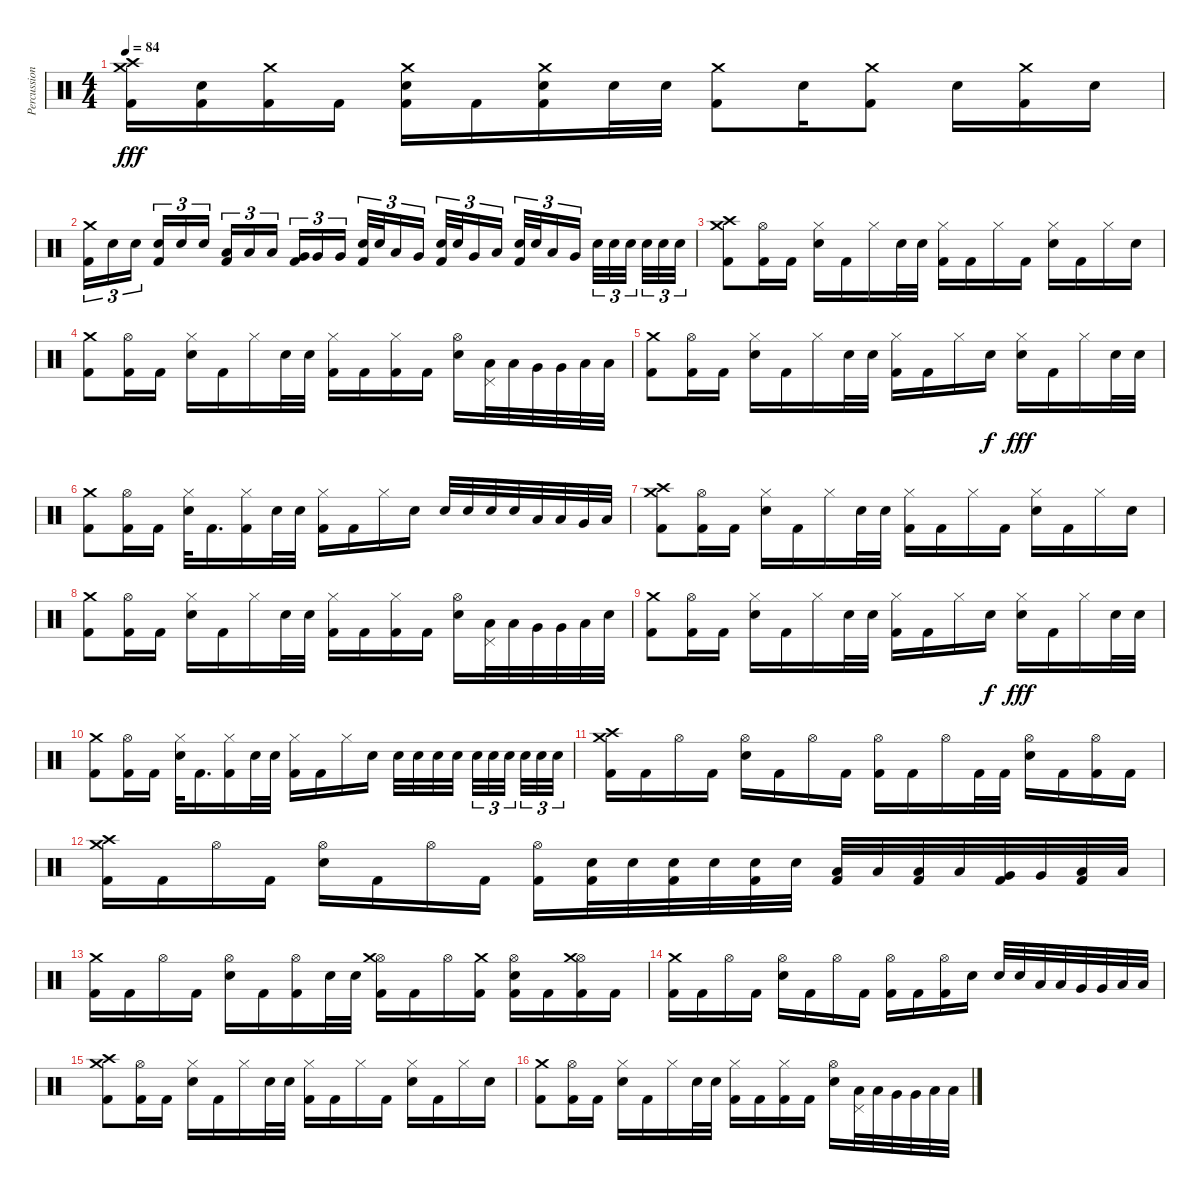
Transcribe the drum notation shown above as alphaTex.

\track ("Percussion" "Percussion") {instrument percussion}
\staff {score}
\articulation defaults
\ts (4 4)
\tempo 84
\clef neutral
\ks c
("Crash high (hit)" "Crash medium (hit)" "Kick (hit) 2").16{dy fff} ("Electric Snare (hit)" "Kick (hit) 2").16 ("Crash medium (hit)" "Kick (hit) 2").16 "Kick (hit) 2".16 ("Crash medium (hit)" "Electric Snare (hit)" "Kick (hit) 2").16 "Kick (hit) 2".16 ("Crash medium (hit)" "Electric Snare (hit)" "Kick (hit) 2").16 "Electric Snare (hit)".32 "Electric Snare (hit)".32 ("Crash medium (hit)" "Kick (hit) 2").8 "Electric Snare (hit)".16 ("Crash medium (hit)" "Kick (hit) 2").8 "Electric Snare (hit)".16 ("Crash medium (hit)" "Kick (hit) 2").16 "Electric Snare (hit)".16 |
("Crash medium (hit)" "Kick (hit) 2").16{tu (3 2)} "Electric Snare (hit)".16{tu (3 2)} "Electric Snare (hit)".16{tu (3 2) beam splitsecondary} ("Electric Snare (hit)" "Kick (hit) 2").16{tu (3 2)} "Electric Snare (hit)".16{tu (3 2)} "Electric Snare (hit)".16{tu (3 2)} ("Low Tom (hit)" "Kick (hit) 2").16{tu (3 2)} "Low Tom (hit)".16{tu (3 2)} "Low Tom (hit)".16{tu (3 2) beam splitsecondary} ("Very Low Tom (hit)" "Kick (hit) 2").16{tu (3 2)} "Very Low Tom (hit)".16{tu (3 2)} "Very Low Tom (hit)".16{tu (3 2)} ("Electric Snare (hit)" "Kick (hit) 2").32{tu (3 2)} "Electric Snare (hit)".32{tu (3 2)} "Low Tom (hit)".16{tu (3 2)} "Very Low Tom (hit)".16{tu (3 2) beam splitsecondary} ("Electric Snare (hit)" "Kick (hit) 2").32{tu (3 2)} "Electric Snare (hit)".32{tu (3 2)} "Very Low Tom (hit)".16{tu (3 2)} "Low Floor Tom (hit)".16{tu (3 2)} ("Electric Snare (hit)" "Kick (hit) 2").32{tu (3 2)} "Electric Snare (hit)".32{tu (3 2)} "Low Tom (hit)".16{tu (3 2)} "Very Low Tom (hit)".16{tu (3 2) beam splitsecondary} "Electric Snare (hit)".32{tu (3 2)} "Electric Snare (hit)".32{tu (3 2)} "Electric Snare (hit)".32{tu (3 2) beam splitsecondary} "Electric Snare (hit)".32{tu (3 2)} "Electric Snare (hit)".32{tu (3 2)} "Electric Snare (hit)".32{tu (3 2)} |
("Crash high (hit)" "Crash medium (hit)" "Kick (hit) 2").8 ("Hi-Hat (open)" "Kick (hit) 2").16 "Kick (hit) 2".16 ("Hi-Hat (closed)" "Electric Snare (hit)").16 "Kick (hit) 2".16 "Hi-Hat (closed)".16 "Electric Snare (hit)".32 "Electric Snare (hit)".32 ("Hi-Hat (closed)" "Kick (hit) 2").16 "Kick (hit) 2".16 "Hi-Hat (closed)".16 "Kick (hit) 2".16 ("Hi-Hat (closed)" "Electric Snare (hit)").16 "Kick (hit) 2".16 "Hi-Hat (closed)".16 "Electric Snare (hit)".16 |
("Crash medium (hit)" "Kick (hit) 2").8 ("Hi-Hat (open)" "Kick (hit) 2").16 "Kick (hit) 2".16 ("Hi-Hat (closed)" "Electric Snare (hit)").16 "Kick (hit) 2".16 "Hi-Hat (closed)".16 "Electric Snare (hit)".32 "Electric Snare (hit)".32 ("Hi-Hat (closed)" "Kick (hit) 2").16 "Kick (hit) 2".16 ("Hi-Hat (closed)" "Kick (hit) 2").16 "Kick (hit) 2".16 ("Hi-Hat (open)" "Electric Snare (hit)").16 ("Pedal Hi-Hat (hit)" "Low Tom (hit)").32 "Low Tom (hit)".32 "Very Low Tom (hit)".32 "Very Low Tom (hit)".32 "Low Floor Tom (hit)".32 "Low Floor Tom (hit)".32 |
("Crash medium (hit)" "Kick (hit) 2").8 ("Hi-Hat (open)" "Kick (hit) 2").16 "Kick (hit) 2".16 ("Hi-Hat (closed)" "Electric Snare (hit)").16 "Kick (hit) 2".16 "Hi-Hat (closed)".16 "Electric Snare (hit)".32 "Electric Snare (hit)".32 ("Hi-Hat (closed)" "Kick (hit) 2").16 "Kick (hit) 2".16 "Hi-Hat (closed)".16 "Electric Snare (hit)".16{dy f} ("Hi-Hat (closed)" "Electric Snare (hit)").16{dy fff} "Kick (hit) 2".16 "Hi-Hat (closed)".16 "Electric Snare (hit)".32 "Electric Snare (hit)".32 |
("Crash medium (hit)" "Kick (hit) 2").8 ("Hi-Hat (open)" "Kick (hit) 2").16 "Kick (hit) 2".16 ("Hi-Hat (closed)" "Electric Snare (hit)").32 "Kick (hit) 2".16{d} ("Hi-Hat (closed)" "Kick (hit) 2").16 "Electric Snare (hit)".32 "Electric Snare (hit)".32 ("Hi-Hat (closed)" "Kick (hit) 2").16 "Kick (hit) 2".16 "Hi-Hat (closed)".16 "Electric Snare (hit)".16 "Electric Snare (hit)".32 "Electric Snare (hit)".32 "Electric Snare (hit)".32 "Electric Snare (hit)".32 "Low Tom (hit)".32 "Low Tom (hit)".32 "Very Low Tom (hit)".32 "Low Floor Tom (hit)".32 |
("Crash high (hit)" "Crash medium (hit)" "Kick (hit) 2").8 ("Hi-Hat (open)" "Kick (hit) 2").16 "Kick (hit) 2".16 ("Hi-Hat (closed)" "Electric Snare (hit)").16 "Kick (hit) 2".16 "Hi-Hat (closed)".16 "Electric Snare (hit)".32 "Electric Snare (hit)".32 ("Hi-Hat (closed)" "Kick (hit) 2").16 "Kick (hit) 2".16 "Hi-Hat (closed)".16 "Kick (hit) 2".16 ("Hi-Hat (closed)" "Electric Snare (hit)").16 "Kick (hit) 2".16 "Hi-Hat (closed)".16 "Electric Snare (hit)".16 |
("Crash medium (hit)" "Kick (hit) 2").8 ("Hi-Hat (open)" "Kick (hit) 2").16 "Kick (hit) 2".16 ("Hi-Hat (closed)" "Electric Snare (hit)").16 "Kick (hit) 2".16 "Hi-Hat (closed)".16 "Electric Snare (hit)".32 "Electric Snare (hit)".32 ("Hi-Hat (closed)" "Kick (hit) 2").16 "Kick (hit) 2".16 ("Hi-Hat (closed)" "Kick (hit) 2").16 "Kick (hit) 2".16 ("Hi-Hat (open)" "Electric Snare (hit)").16 ("Pedal Hi-Hat (hit)" "Low Tom (hit)").32 "Low Tom (hit)".32 "Very Low Tom (hit)".32 "Very Low Tom (hit)".32 "Low Floor Tom (hit)".32 "Electric Snare (hit)".32 |
("Crash medium (hit)" "Kick (hit) 2").8 ("Hi-Hat (open)" "Kick (hit) 2").16 "Kick (hit) 2".16 ("Hi-Hat (closed)" "Electric Snare (hit)").16 "Kick (hit) 2".16 "Hi-Hat (closed)".16 "Electric Snare (hit)".32 "Electric Snare (hit)".32 ("Hi-Hat (closed)" "Kick (hit) 2").16 "Kick (hit) 2".16 "Hi-Hat (closed)".16 "Electric Snare (hit)".16{dy f} ("Hi-Hat (closed)" "Electric Snare (hit)").16{dy fff} "Kick (hit) 2".16 "Hi-Hat (closed)".16 "Electric Snare (hit)".32 "Electric Snare (hit)".32 |
("Crash medium (hit)" "Kick (hit) 2").8 ("Hi-Hat (open)" "Kick (hit) 2").16 "Kick (hit) 2".16 ("Hi-Hat (closed)" "Electric Snare (hit)").32 "Kick (hit) 2".16{d} ("Hi-Hat (closed)" "Kick (hit) 2").16 "Electric Snare (hit)".32 "Electric Snare (hit)".32 ("Hi-Hat (closed)" "Kick (hit) 2").16 "Kick (hit) 2".16 "Hi-Hat (closed)".16 "Electric Snare (hit)".16 "Electric Snare (hit)".32 "Electric Snare (hit)".32 "Electric Snare (hit)".32 "Electric Snare (hit)".32{beam splitsecondary} "Electric Snare (hit)".32{tu (3 2)} "Electric Snare (hit)".32{tu (3 2)} "Electric Snare (hit)".32{tu (3 2) beam splitsecondary} "Electric Snare (hit)".32{tu (3 2)} "Electric Snare (hit)".32{tu (3 2)} "Electric Snare (hit)".32{tu (3 2)} |
("Crash high (hit)" "Crash medium (hit)" "Kick (hit) 2").16 "Kick (hit) 2".16 "Hi-Hat (open)".16 "Kick (hit) 2".16 ("Hi-Hat (open)" "Electric Snare (hit)").16 "Kick (hit) 2".16 "Hi-Hat (open)".16 "Kick (hit) 2".16 ("Hi-Hat (open)" "Kick (hit) 2").16 "Kick (hit) 2".16 "Hi-Hat (open)".16 "Kick (hit) 2".32 "Kick (hit) 2".32 ("Hi-Hat (open)" "Electric Snare (hit)").16 "Kick (hit) 2".16 ("Hi-Hat (open)" "Kick (hit) 2").16 "Kick (hit) 2".16 |
("Crash high (hit)" "Crash medium (hit)" "Kick (hit) 2").16 "Kick (hit) 2".16 "Hi-Hat (open)".16 "Kick (hit) 2".16 ("Hi-Hat (open)" "Electric Snare (hit)").16 "Kick (hit) 2".16 "Hi-Hat (open)".16 "Kick (hit) 2".16 ("Hi-Hat (open)" "Kick (hit) 2").16 ("Electric Snare (hit)" "Kick (hit) 2").32 "Electric Snare (hit)".32 ("Electric Snare (hit)" "Kick (hit) 2").32 "Electric Snare (hit)".32 ("Electric Snare (hit)" "Kick (hit) 2").32 "Electric Snare (hit)".32 ("Low Tom (hit)" "Kick (hit) 2").32 "Low Tom (hit)".32 ("Low Tom (hit)" "Kick (hit) 2").32 "Low Tom (hit)".32 ("Very Low Tom (hit)" "Kick (hit) 2").32 "Very Low Tom (hit)".32 ("Low Floor Tom (hit)" "Kick (hit) 2").32 "Low Floor Tom (hit)".32 |
("Crash medium (hit)" "Kick (hit) 2").16 "Kick (hit) 2".16 "Hi-Hat (open)".16 "Kick (hit) 2".16 ("Hi-Hat (open)" "Electric Snare (hit)").16 "Kick (hit) 2".16 ("Hi-Hat (open)" "Kick (hit) 2").16 "Electric Snare (hit)".32 "Electric Snare (hit)".32 ("Hi-Hat (open)" "Crash medium (hit)" "Kick (hit) 2").16 "Kick (hit) 2".16 "Hi-Hat (open)".16 ("Crash medium (hit)" "Kick (hit) 2").16 ("Hi-Hat (open)" "Electric Snare (hit)" "Kick (hit) 2").16 "Kick (hit) 2".16 ("Hi-Hat (open)" "Crash medium (hit)" "Kick (hit) 2").16 "Kick (hit) 2".16 |
("Crash medium (hit)" "Kick (hit) 2").16 "Kick (hit) 2".16 "Hi-Hat (open)".16 "Kick (hit) 2".16 ("Hi-Hat (open)" "Electric Snare (hit)").16 "Kick (hit) 2".16 "Hi-Hat (open)".16 "Kick (hit) 2".16 ("Hi-Hat (open)" "Kick (hit) 2").16 "Kick (hit) 2".16 ("Hi-Hat (open)" "Kick (hit) 2").16 "Electric Snare (hit)".16 "Electric Snare (hit)".32 "Electric Snare (hit)".32 "Low Tom (hit)".32 "Low Tom (hit)".32 "Very Low Tom (hit)".32 "Very Low Tom (hit)".32 "Low Floor Tom (hit)".32 "Low Floor Tom (hit)".32 |
("Crash high (hit)" "Crash medium (hit)" "Kick (hit) 2").8 ("Hi-Hat (open)" "Kick (hit) 2").16 "Kick (hit) 2".16 ("Hi-Hat (closed)" "Electric Snare (hit)").16 "Kick (hit) 2".16 "Hi-Hat (closed)".16 "Electric Snare (hit)".32 "Electric Snare (hit)".32 ("Hi-Hat (closed)" "Kick (hit) 2").16 "Kick (hit) 2".16 "Hi-Hat (closed)".16 "Kick (hit) 2".16 ("Hi-Hat (closed)" "Electric Snare (hit)").16 "Kick (hit) 2".16 "Hi-Hat (closed)".16 "Electric Snare (hit)".16 |
("Crash medium (hit)" "Kick (hit) 2").8 ("Hi-Hat (open)" "Kick (hit) 2").16 "Kick (hit) 2".16 ("Hi-Hat (closed)" "Electric Snare (hit)").16 "Kick (hit) 2".16 "Hi-Hat (closed)".16 "Electric Snare (hit)".32 "Electric Snare (hit)".32 ("Hi-Hat (closed)" "Kick (hit) 2").16 "Kick (hit) 2".16 ("Hi-Hat (closed)" "Kick (hit) 2").16 "Kick (hit) 2".16 ("Hi-Hat (open)" "Electric Snare (hit)").16 ("Pedal Hi-Hat (hit)" "Low Tom (hit)").32 "Low Tom (hit)".32 "Very Low Tom (hit)".32 "Very Low Tom (hit)".32 "Low Floor Tom (hit)".32 "Low Floor Tom (hit)".32
